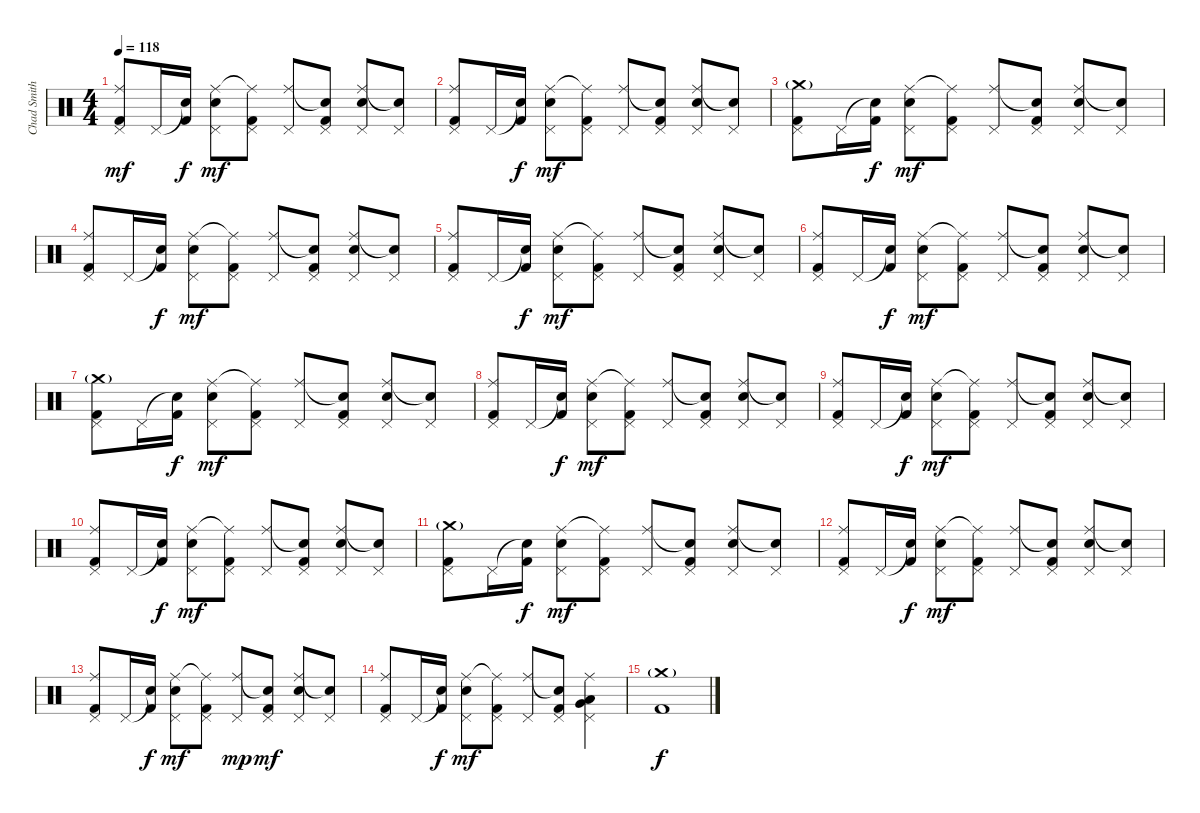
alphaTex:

\track ("Chad Smith" "Chad Smith") {instrument percussion}
\staff {score}
\articulation defaults
\ts (4 4)
\tempo 118
\clef neutral
\ks c
("Ride (middle)" "Pedal Hi-Hat (hit)" "Kick (hit) 2").8{dy mf} "Pedal Hi-Hat (hit)".16 ("Snare (hit)"{t} "Kick (hit) 2").16{dy f} ("Ride (middle)" "Pedal Hi-Hat (hit)" "Snare (hit) 2").8{dy mf} ("Ride (middle)"{t} "Pedal Hi-Hat (hit)" "Kick (hit) 2").8 ("Ride (middle)" "Pedal Hi-Hat (hit)").8 ("Snare (hit)"{t} "Pedal Hi-Hat (hit)" "Kick (hit) 2").8 ("Ride (middle)" "Pedal Hi-Hat (hit)" "Snare (hit) 2").8 ("Snare (hit)"{t} "Pedal Hi-Hat (hit)").8 |
("Ride (middle)" "Pedal Hi-Hat (hit)" "Kick (hit) 2").8 "Pedal Hi-Hat (hit)".16 ("Snare (hit)"{t} "Kick (hit) 2").16{dy f} ("Ride (middle)" "Pedal Hi-Hat (hit)" "Snare (hit) 2").8{dy mf} ("Ride (middle)"{t} "Pedal Hi-Hat (hit)" "Kick (hit) 2").8 ("Ride (middle)" "Pedal Hi-Hat (hit)").8 ("Snare (hit)"{t} "Pedal Hi-Hat (hit)" "Kick (hit) 2").8 ("Ride (middle)" "Pedal Hi-Hat (hit)" "Snare (hit) 2").8 ("Snare (hit)"{t} "Pedal Hi-Hat (hit)").8 |
("Crash medium (hit)"{g} "Pedal Hi-Hat (hit)" "Kick (hit) 2").8 "Pedal Hi-Hat (hit)".16 ("Snare (hit)"{t} "Kick (hit) 2").16{dy f} ("Ride (middle)" "Pedal Hi-Hat (hit)" "Snare (hit) 2").8{dy mf} ("Ride (middle)"{t} "Pedal Hi-Hat (hit)" "Kick (hit) 2").8 ("Ride (middle)" "Pedal Hi-Hat (hit)").8 ("Snare (hit)"{t} "Pedal Hi-Hat (hit)" "Kick (hit) 2").8 ("Ride (middle)" "Pedal Hi-Hat (hit)" "Snare (hit) 2").8 ("Snare (hit)"{t} "Pedal Hi-Hat (hit)").8 |
("Ride (middle)" "Pedal Hi-Hat (hit)" "Kick (hit) 2").8 "Pedal Hi-Hat (hit)".16 ("Snare (hit)"{t} "Kick (hit) 2").16{dy f} ("Ride (middle)" "Pedal Hi-Hat (hit)" "Snare (hit) 2").8{dy mf} ("Ride (middle)"{t} "Pedal Hi-Hat (hit)" "Kick (hit) 2").8 ("Ride (middle)" "Pedal Hi-Hat (hit)").8 ("Snare (hit)"{t} "Pedal Hi-Hat (hit)" "Kick (hit) 2").8 ("Ride (middle)" "Pedal Hi-Hat (hit)" "Snare (hit) 2").8 ("Snare (hit)"{t} "Pedal Hi-Hat (hit)").8 |
("Ride (middle)" "Pedal Hi-Hat (hit)" "Kick (hit) 2").8 "Pedal Hi-Hat (hit)".16 ("Snare (hit)"{t} "Kick (hit) 2").16{dy f} ("Ride (middle)" "Pedal Hi-Hat (hit)" "Snare (hit) 2").8{dy mf} ("Ride (middle)"{t} "Pedal Hi-Hat (hit)" "Kick (hit) 2").8 ("Ride (middle)" "Pedal Hi-Hat (hit)").8 ("Snare (hit)"{t} "Pedal Hi-Hat (hit)" "Kick (hit) 2").8 ("Ride (middle)" "Pedal Hi-Hat (hit)" "Snare (hit) 2").8 ("Snare (hit)"{t} "Pedal Hi-Hat (hit)").8 |
("Ride (middle)" "Pedal Hi-Hat (hit)" "Kick (hit) 2").8 "Pedal Hi-Hat (hit)".16 ("Snare (hit)"{t} "Kick (hit) 2").16{dy f} ("Ride (middle)" "Pedal Hi-Hat (hit)" "Snare (hit) 2").8{dy mf} ("Ride (middle)"{t} "Pedal Hi-Hat (hit)" "Kick (hit) 2").8 ("Ride (middle)" "Pedal Hi-Hat (hit)").8 ("Snare (hit)"{t} "Pedal Hi-Hat (hit)" "Kick (hit) 2").8 ("Ride (middle)" "Pedal Hi-Hat (hit)" "Snare (hit) 2").8 ("Snare (hit)"{t} "Pedal Hi-Hat (hit)").8 |
("Crash medium (hit)"{g} "Pedal Hi-Hat (hit)" "Kick (hit) 2").8 "Pedal Hi-Hat (hit)".16 ("Snare (hit)"{t} "Kick (hit) 2").16{dy f} ("Ride (middle)" "Pedal Hi-Hat (hit)" "Snare (hit) 2").8{dy mf} ("Ride (middle)"{t} "Pedal Hi-Hat (hit)" "Kick (hit) 2").8 ("Ride (middle)" "Pedal Hi-Hat (hit)").8 ("Snare (hit)"{t} "Pedal Hi-Hat (hit)" "Kick (hit) 2").8 ("Ride (middle)" "Pedal Hi-Hat (hit)" "Snare (hit) 2").8 ("Snare (hit)"{t} "Pedal Hi-Hat (hit)").8 |
("Ride (middle)" "Pedal Hi-Hat (hit)" "Kick (hit) 2").8 "Pedal Hi-Hat (hit)".16 ("Snare (hit)"{t} "Kick (hit) 2").16{dy f} ("Ride (middle)" "Pedal Hi-Hat (hit)" "Snare (hit) 2").8{dy mf} ("Ride (middle)"{t} "Pedal Hi-Hat (hit)" "Kick (hit) 2").8 ("Ride (middle)" "Pedal Hi-Hat (hit)").8 ("Snare (hit)"{t} "Pedal Hi-Hat (hit)" "Kick (hit) 2").8 ("Ride (middle)" "Pedal Hi-Hat (hit)" "Snare (hit) 2").8 ("Snare (hit)"{t} "Pedal Hi-Hat (hit)").8 |
("Ride (middle)" "Pedal Hi-Hat (hit)" "Kick (hit) 2").8 "Pedal Hi-Hat (hit)".16 ("Snare (hit)"{t} "Kick (hit) 2").16{dy f} ("Ride (middle)" "Pedal Hi-Hat (hit)" "Snare (hit) 2").8{dy mf} ("Ride (middle)"{t} "Pedal Hi-Hat (hit)" "Kick (hit) 2").8 ("Ride (middle)" "Pedal Hi-Hat (hit)").8 ("Snare (hit)"{t} "Pedal Hi-Hat (hit)" "Kick (hit) 2").8 ("Ride (middle)" "Pedal Hi-Hat (hit)" "Snare (hit) 2").8 ("Snare (hit)"{t} "Pedal Hi-Hat (hit)").8 |
("Ride (middle)" "Pedal Hi-Hat (hit)" "Kick (hit) 2").8 "Pedal Hi-Hat (hit)".16 ("Snare (hit)"{t} "Kick (hit) 2").16{dy f} ("Ride (middle)" "Pedal Hi-Hat (hit)" "Snare (hit) 2").8{dy mf} ("Ride (middle)"{t} "Pedal Hi-Hat (hit)" "Kick (hit) 2").8 ("Ride (middle)" "Pedal Hi-Hat (hit)").8 ("Snare (hit)"{t} "Pedal Hi-Hat (hit)" "Kick (hit) 2").8 ("Ride (middle)" "Pedal Hi-Hat (hit)" "Snare (hit) 2").8 ("Snare (hit)"{t} "Pedal Hi-Hat (hit)").8 |
("Crash medium (hit)"{g} "Pedal Hi-Hat (hit)" "Kick (hit) 2").8 "Pedal Hi-Hat (hit)".16 ("Snare (hit)"{t} "Kick (hit) 2").16{dy f} ("Ride (middle)" "Pedal Hi-Hat (hit)" "Snare (hit) 2").8{dy mf} ("Ride (middle)"{t} "Pedal Hi-Hat (hit)" "Kick (hit) 2").8 ("Ride (middle)" "Pedal Hi-Hat (hit)").8 ("Snare (hit)"{t} "Pedal Hi-Hat (hit)" "Kick (hit) 2").8 ("Ride (middle)" "Pedal Hi-Hat (hit)" "Snare (hit) 2").8 ("Snare (hit)"{t} "Pedal Hi-Hat (hit)").8 |
("Ride (middle)" "Pedal Hi-Hat (hit)" "Kick (hit) 2").8 "Pedal Hi-Hat (hit)".16 ("Snare (hit)"{t} "Kick (hit) 2").16{dy f} ("Ride (middle)" "Pedal Hi-Hat (hit)" "Snare (hit) 2").8{dy mf} ("Ride (middle)"{t} "Pedal Hi-Hat (hit)" "Kick (hit) 2").8 ("Ride (middle)" "Pedal Hi-Hat (hit)").8 ("Snare (hit)"{t} "Pedal Hi-Hat (hit)" "Kick (hit) 2").8 ("Ride (middle)" "Pedal Hi-Hat (hit)" "Snare (hit) 2").8 ("Snare (hit)"{t} "Pedal Hi-Hat (hit)").8 |
("Ride (middle)" "Pedal Hi-Hat (hit)" "Kick (hit) 2").8 "Pedal Hi-Hat (hit)".16 ("Snare (hit)"{t} "Kick (hit) 2").16{dy f} ("Ride (middle)" "Pedal Hi-Hat (hit)" "Snare (hit) 2").8{dy mf} ("Ride (middle)"{t} "Pedal Hi-Hat (hit)" "Kick (hit) 2").8 ("Ride (middle)" "Pedal Hi-Hat (hit)").8{dy mp} ("Snare (hit)"{t} "Pedal Hi-Hat (hit)" "Kick (hit) 2").8{dy mf} ("Ride (middle)" "Pedal Hi-Hat (hit)" "Snare (hit) 2").8 ("Snare (hit)"{t} "Pedal Hi-Hat (hit)").8 |
("Ride (middle)" "Pedal Hi-Hat (hit)" "Kick (hit) 2").8 "Pedal Hi-Hat (hit)".16 ("Snare (hit)"{t} "Kick (hit) 2").16{dy f} ("Ride (middle)" "Pedal Hi-Hat (hit)" "Snare (hit) 2").8{dy mf} ("Ride (middle)"{t} "Pedal Hi-Hat (hit)" "Kick (hit) 2").8 ("Ride (middle)" "Pedal Hi-Hat (hit)").8 ("Snare (hit)"{t} "Pedal Hi-Hat (hit)" "Kick (hit) 2").8 ("Ride (middle)" "Pedal Hi-Hat (hit)" "Low Tom (hit)" "Very Low Tom (hit)").4 |
("Crash medium (hit)"{g} "Kick (hit) 2").1{dy f}
